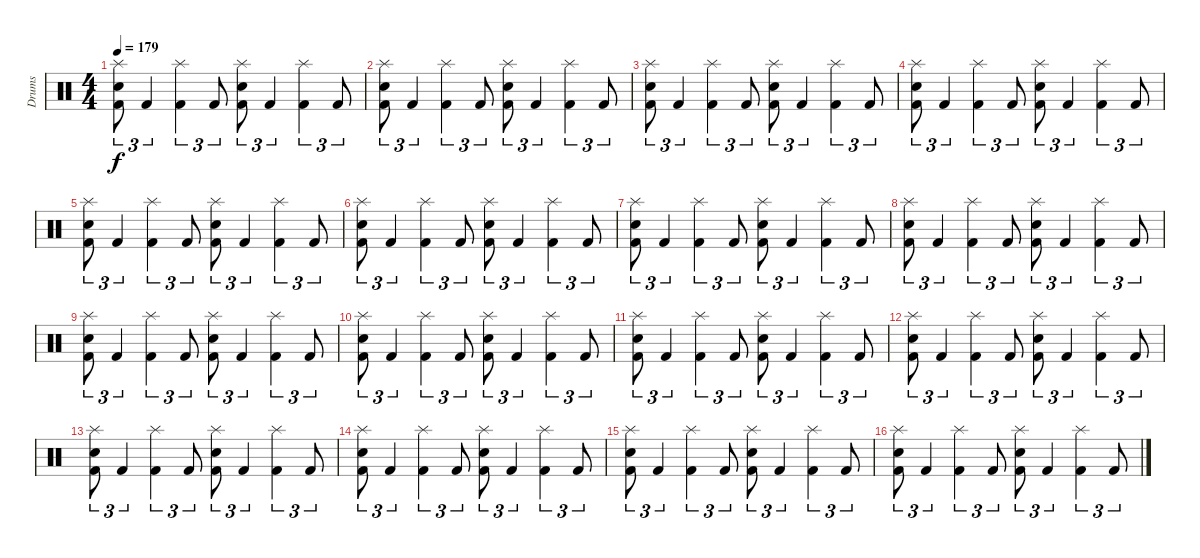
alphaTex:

\track ("Drums" "Drums") {instrument percussion}
\staff {score}
\articulation defaults
\ts (4 4)
\tempo 179
\clef neutral
\ks c
("Splash (hit)" "Electric Snare (hit)" "Kick (hit) 2").8{tu (3 2) dy f} "Kick (hit) 2".4{tu (3 2)} ("Splash (hit)" "Kick (hit) 2").4{tu (3 2)} "Kick (hit) 2".8{tu (3 2)} ("Splash (hit)" "Electric Snare (hit)" "Kick (hit) 2").8{tu (3 2)} "Kick (hit) 2".4{tu (3 2)} ("Splash (hit)" "Kick (hit) 2").4{tu (3 2)} "Kick (hit) 2".8{tu (3 2)} |
("Splash (hit)" "Electric Snare (hit)" "Kick (hit) 2").8{tu (3 2)} "Kick (hit) 2".4{tu (3 2)} ("Splash (hit)" "Kick (hit) 2").4{tu (3 2)} "Kick (hit) 2".8{tu (3 2)} ("Splash (hit)" "Electric Snare (hit)" "Kick (hit) 2").8{tu (3 2)} "Kick (hit) 2".4{tu (3 2)} ("Splash (hit)" "Kick (hit) 2").4{tu (3 2)} "Kick (hit) 2".8{tu (3 2)} |
("Splash (hit)" "Electric Snare (hit)" "Kick (hit) 2").8{tu (3 2)} "Kick (hit) 2".4{tu (3 2)} ("Splash (hit)" "Kick (hit) 2").4{tu (3 2)} "Kick (hit) 2".8{tu (3 2)} ("Splash (hit)" "Electric Snare (hit)" "Kick (hit) 2").8{tu (3 2)} "Kick (hit) 2".4{tu (3 2)} ("Splash (hit)" "Kick (hit) 2").4{tu (3 2)} "Kick (hit) 2".8{tu (3 2)} |
("Splash (hit)" "Electric Snare (hit)" "Kick (hit) 2").8{tu (3 2)} "Kick (hit) 2".4{tu (3 2)} ("Splash (hit)" "Kick (hit) 2").4{tu (3 2)} "Kick (hit) 2".8{tu (3 2)} ("Splash (hit)" "Electric Snare (hit)" "Kick (hit) 2").8{tu (3 2)} "Kick (hit) 2".4{tu (3 2)} ("Splash (hit)" "Kick (hit) 2").4{tu (3 2)} "Kick (hit) 2".8{tu (3 2)} |
("Splash (hit)" "Electric Snare (hit)" "Kick (hit) 2").8{tu (3 2)} "Kick (hit) 2".4{tu (3 2)} ("Splash (hit)" "Kick (hit) 2").4{tu (3 2)} "Kick (hit) 2".8{tu (3 2)} ("Splash (hit)" "Electric Snare (hit)" "Kick (hit) 2").8{tu (3 2)} "Kick (hit) 2".4{tu (3 2)} ("Splash (hit)" "Kick (hit) 2").4{tu (3 2)} "Kick (hit) 2".8{tu (3 2)} |
("Splash (hit)" "Electric Snare (hit)" "Kick (hit) 2").8{tu (3 2)} "Kick (hit) 2".4{tu (3 2)} ("Splash (hit)" "Kick (hit) 2").4{tu (3 2)} "Kick (hit) 2".8{tu (3 2)} ("Splash (hit)" "Electric Snare (hit)" "Kick (hit) 2").8{tu (3 2)} "Kick (hit) 2".4{tu (3 2)} ("Splash (hit)" "Kick (hit) 2").4{tu (3 2)} "Kick (hit) 2".8{tu (3 2)} |
("Splash (hit)" "Electric Snare (hit)" "Kick (hit) 2").8{tu (3 2)} "Kick (hit) 2".4{tu (3 2)} ("Splash (hit)" "Kick (hit) 2").4{tu (3 2)} "Kick (hit) 2".8{tu (3 2)} ("Splash (hit)" "Electric Snare (hit)" "Kick (hit) 2").8{tu (3 2)} "Kick (hit) 2".4{tu (3 2)} ("Splash (hit)" "Kick (hit) 2").4{tu (3 2)} "Kick (hit) 2".8{tu (3 2)} |
("Splash (hit)" "Electric Snare (hit)" "Kick (hit) 2").8{tu (3 2)} "Kick (hit) 2".4{tu (3 2)} ("Splash (hit)" "Kick (hit) 2").4{tu (3 2)} "Kick (hit) 2".8{tu (3 2)} ("Splash (hit)" "Electric Snare (hit)" "Kick (hit) 2").8{tu (3 2)} "Kick (hit) 2".4{tu (3 2)} ("Splash (hit)" "Kick (hit) 2").4{tu (3 2)} "Kick (hit) 2".8{tu (3 2)} |
("Splash (hit)" "Electric Snare (hit)" "Kick (hit) 2").8{tu (3 2)} "Kick (hit) 2".4{tu (3 2)} ("Splash (hit)" "Kick (hit) 2").4{tu (3 2)} "Kick (hit) 2".8{tu (3 2)} ("Splash (hit)" "Electric Snare (hit)" "Kick (hit) 2").8{tu (3 2)} "Kick (hit) 2".4{tu (3 2)} ("Splash (hit)" "Kick (hit) 2").4{tu (3 2)} "Kick (hit) 2".8{tu (3 2)} |
("Splash (hit)" "Electric Snare (hit)" "Kick (hit) 2").8{tu (3 2)} "Kick (hit) 2".4{tu (3 2)} ("Splash (hit)" "Kick (hit) 2").4{tu (3 2)} "Kick (hit) 2".8{tu (3 2)} ("Splash (hit)" "Electric Snare (hit)" "Kick (hit) 2").8{tu (3 2)} "Kick (hit) 2".4{tu (3 2)} ("Splash (hit)" "Kick (hit) 2").4{tu (3 2)} "Kick (hit) 2".8{tu (3 2)} |
("Splash (hit)" "Electric Snare (hit)" "Kick (hit) 2").8{tu (3 2)} "Kick (hit) 2".4{tu (3 2)} ("Splash (hit)" "Kick (hit) 2").4{tu (3 2)} "Kick (hit) 2".8{tu (3 2)} ("Splash (hit)" "Electric Snare (hit)" "Kick (hit) 2").8{tu (3 2)} "Kick (hit) 2".4{tu (3 2)} ("Splash (hit)" "Kick (hit) 2").4{tu (3 2)} "Kick (hit) 2".8{tu (3 2)} |
("Splash (hit)" "Electric Snare (hit)" "Kick (hit) 2").8{tu (3 2)} "Kick (hit) 2".4{tu (3 2)} ("Splash (hit)" "Kick (hit) 2").4{tu (3 2)} "Kick (hit) 2".8{tu (3 2)} ("Splash (hit)" "Electric Snare (hit)" "Kick (hit) 2").8{tu (3 2)} "Kick (hit) 2".4{tu (3 2)} ("Splash (hit)" "Kick (hit) 2").4{tu (3 2)} "Kick (hit) 2".8{tu (3 2)} |
("Splash (hit)" "Electric Snare (hit)" "Kick (hit) 2").8{tu (3 2)} "Kick (hit) 2".4{tu (3 2)} ("Splash (hit)" "Kick (hit) 2").4{tu (3 2)} "Kick (hit) 2".8{tu (3 2)} ("Splash (hit)" "Electric Snare (hit)" "Kick (hit) 2").8{tu (3 2)} "Kick (hit) 2".4{tu (3 2)} ("Splash (hit)" "Kick (hit) 2").4{tu (3 2)} "Kick (hit) 2".8{tu (3 2)} |
("Splash (hit)" "Electric Snare (hit)" "Kick (hit) 2").8{tu (3 2)} "Kick (hit) 2".4{tu (3 2)} ("Splash (hit)" "Kick (hit) 2").4{tu (3 2)} "Kick (hit) 2".8{tu (3 2)} ("Splash (hit)" "Electric Snare (hit)" "Kick (hit) 2").8{tu (3 2)} "Kick (hit) 2".4{tu (3 2)} ("Splash (hit)" "Kick (hit) 2").4{tu (3 2)} "Kick (hit) 2".8{tu (3 2)} |
("Splash (hit)" "Electric Snare (hit)" "Kick (hit) 2").8{tu (3 2)} "Kick (hit) 2".4{tu (3 2)} ("Splash (hit)" "Kick (hit) 2").4{tu (3 2)} "Kick (hit) 2".8{tu (3 2)} ("Splash (hit)" "Electric Snare (hit)" "Kick (hit) 2").8{tu (3 2)} "Kick (hit) 2".4{tu (3 2)} ("Splash (hit)" "Kick (hit) 2").4{tu (3 2)} "Kick (hit) 2".8{tu (3 2)} |
("Splash (hit)" "Electric Snare (hit)" "Kick (hit) 2").8{tu (3 2)} "Kick (hit) 2".4{tu (3 2)} ("Splash (hit)" "Kick (hit) 2").4{tu (3 2)} "Kick (hit) 2".8{tu (3 2)} ("Splash (hit)" "Electric Snare (hit)" "Kick (hit) 2").8{tu (3 2)} "Kick (hit) 2".4{tu (3 2)} ("Splash (hit)" "Kick (hit) 2").4{tu (3 2)} "Kick (hit) 2".8{tu (3 2)}
